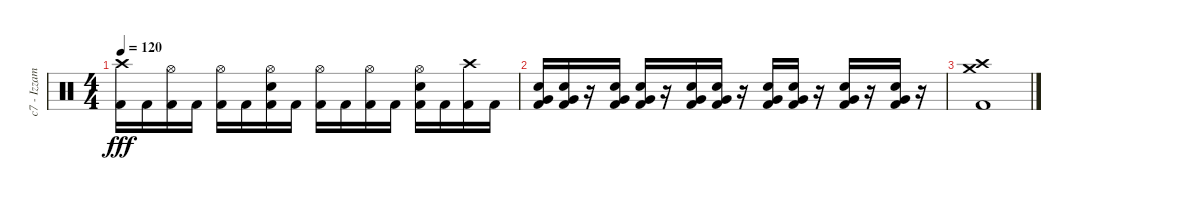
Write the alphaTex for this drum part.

\track ("c7 - Izzam - Drums" "c7 - Izzam") {instrument percussion}
\staff {score}
\articulation defaults
\ts (4 4)
\tempo 120
\clef neutral
\ks c
("Crash high (hit)" "Kick (hit) 2").16{dy fff} "Kick (hit) 2".16 ("Hi-Hat (open)" "Kick (hit) 2").16 "Kick (hit) 2".16 ("Hi-Hat (open)" "Kick (hit) 2").16 "Kick (hit) 2".16 ("Hi-Hat (open)" "Electric Snare (hit)" "Kick (hit) 2").16 "Kick (hit) 2".16 ("Hi-Hat (open)" "Kick (hit) 2").16 "Kick (hit) 2".16 ("Hi-Hat (open)" "Kick (hit) 2").16 "Kick (hit) 2".16 ("Hi-Hat (open)" "Electric Snare (hit)" "Kick (hit) 2").16 "Kick (hit) 2".16 ("Crash high (hit)" "Kick (hit) 2").16 "Kick (hit) 2".16 |
("Very Low Tom (hit)" "Electric Snare (hit)" "Kick (hit) 2").16 ("Very Low Tom (hit)" "Electric Snare (hit)" "Kick (hit) 2").16 r.16 ("Very Low Tom (hit)" "Electric Snare (hit)" "Kick (hit) 2").16 ("Very Low Tom (hit)" "Electric Snare (hit)" "Kick (hit) 2").16 r.16 ("Very Low Tom (hit)" "Electric Snare (hit)" "Kick (hit) 2").16 ("Very Low Tom (hit)" "Electric Snare (hit)" "Kick (hit) 2").16 r.16 ("Very Low Tom (hit)" "Electric Snare (hit)" "Kick (hit) 2").16 ("Very Low Tom (hit)" "Electric Snare (hit)" "Kick (hit) 2").16 r.16 ("Very Low Tom (hit)" "Electric Snare (hit)" "Kick (hit) 2").16 r.16 ("Very Low Tom (hit)" "Electric Snare (hit)" "Kick (hit) 2").16 r.16 |
("Crash medium (hit)" "Crash high (hit)" "Kick (hit) 2").1
